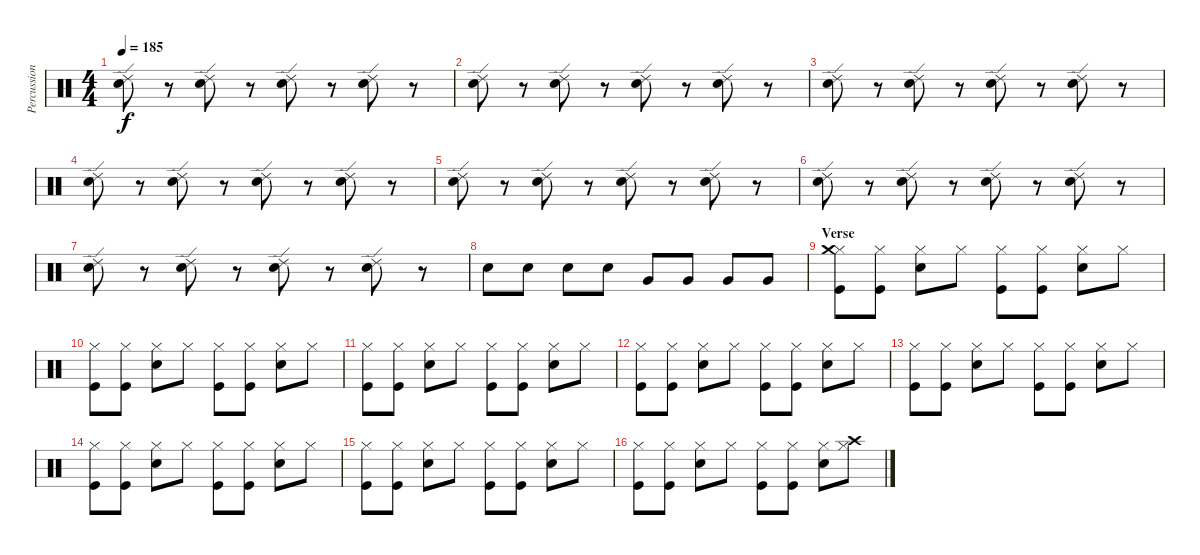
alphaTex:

\track ("Percussion" "Percussion") {instrument percussion}
\staff {score}
\articulation defaults
\ts (4 4)
\tempo 185
\clef neutral
\ks c
("Ride (edge) 2" "Snare (hit) 2").8{dy f} r.8 ("Ride (edge) 2" "Snare (hit) 2").8 r.8 ("Ride (edge) 2" "Snare (hit) 2").8 r.8 ("Ride (edge) 2" "Snare (hit) 2").8 r.8 |
("Ride (edge) 2" "Snare (hit) 2").8 r.8 ("Ride (edge) 2" "Snare (hit) 2").8 r.8 ("Ride (edge) 2" "Snare (hit) 2").8 r.8 ("Ride (edge) 2" "Snare (hit) 2").8 r.8 |
("Ride (edge) 2" "Snare (hit) 2").8 r.8 ("Ride (edge) 2" "Snare (hit) 2").8 r.8 ("Ride (edge) 2" "Snare (hit) 2").8 r.8 ("Ride (edge) 2" "Snare (hit) 2").8 r.8 |
("Ride (edge) 2" "Snare (hit) 2").8 r.8 ("Ride (edge) 2" "Snare (hit) 2").8 r.8 ("Ride (edge) 2" "Snare (hit) 2").8 r.8 ("Ride (edge) 2" "Snare (hit) 2").8 r.8 |
("Ride (edge) 2" "Snare (hit) 2").8 r.8 ("Ride (edge) 2" "Snare (hit) 2").8 r.8 ("Ride (edge) 2" "Snare (hit) 2").8 r.8 ("Ride (edge) 2" "Snare (hit) 2").8 r.8 |
("Ride (edge) 2" "Snare (hit) 2").8 r.8 ("Ride (edge) 2" "Snare (hit) 2").8 r.8 ("Ride (edge) 2" "Snare (hit) 2").8 r.8 ("Ride (edge) 2" "Snare (hit) 2").8 r.8 |
("Ride (edge) 2" "Snare (hit) 2").8 r.8 ("Ride (edge) 2" "Snare (hit) 2").8 r.8 ("Ride (edge) 2" "Snare (hit) 2").8 r.8 ("Ride (edge) 2" "Snare (hit) 2").8 r.8 |
"Snare (hit) 2".8 "Snare (hit) 2".8 "Snare (hit) 2".8 "Snare (hit) 2".8 "Very Low Tom (hit)".8 "Very Low Tom (hit)".8 "Very Low Tom (hit)".8 "Very Low Tom (hit)".8 |
\section ("" "Verse")
("Hi-Hat (closed)" "Crash medium (hit)" "Kick (hit)").8 ("Hi-Hat (closed)" "Kick (hit)").8 ("Hi-Hat (closed)" "Snare (hit) 2").8 "Hi-Hat (closed)".8 ("Hi-Hat (closed)" "Kick (hit)").8 ("Hi-Hat (closed)" "Kick (hit)").8 ("Hi-Hat (closed)" "Snare (hit) 2").8 "Hi-Hat (closed)".8 |
("Hi-Hat (closed)" "Kick (hit)").8 ("Hi-Hat (closed)" "Kick (hit)").8 ("Hi-Hat (closed)" "Snare (hit) 2").8 "Hi-Hat (closed)".8 ("Hi-Hat (closed)" "Kick (hit)").8 ("Hi-Hat (closed)" "Kick (hit)").8 ("Hi-Hat (closed)" "Snare (hit) 2").8 "Hi-Hat (closed)".8 |
("Hi-Hat (closed)" "Kick (hit)").8 ("Hi-Hat (closed)" "Kick (hit)").8 ("Hi-Hat (closed)" "Snare (hit) 2").8 "Hi-Hat (closed)".8 ("Hi-Hat (closed)" "Kick (hit)").8 ("Hi-Hat (closed)" "Kick (hit)").8 ("Hi-Hat (closed)" "Snare (hit) 2").8 "Hi-Hat (closed)".8 |
("Hi-Hat (closed)" "Kick (hit)").8 ("Hi-Hat (closed)" "Kick (hit)").8 ("Hi-Hat (closed)" "Snare (hit) 2").8 "Hi-Hat (closed)".8 ("Hi-Hat (closed)" "Kick (hit)").8 ("Hi-Hat (closed)" "Kick (hit)").8 ("Hi-Hat (closed)" "Snare (hit) 2").8 "Hi-Hat (closed)".8 |
("Hi-Hat (closed)" "Kick (hit)").8 ("Hi-Hat (closed)" "Kick (hit)").8 ("Hi-Hat (closed)" "Snare (hit) 2").8 "Hi-Hat (closed)".8 ("Hi-Hat (closed)" "Kick (hit)").8 ("Hi-Hat (closed)" "Kick (hit)").8 ("Hi-Hat (closed)" "Snare (hit) 2").8 "Hi-Hat (closed)".8 |
("Hi-Hat (closed)" "Kick (hit)").8 ("Hi-Hat (closed)" "Kick (hit)").8 ("Hi-Hat (closed)" "Snare (hit) 2").8 "Hi-Hat (closed)".8 ("Hi-Hat (closed)" "Kick (hit)").8 ("Hi-Hat (closed)" "Kick (hit)").8 ("Hi-Hat (closed)" "Snare (hit) 2").8 "Hi-Hat (closed)".8 |
("Hi-Hat (closed)" "Kick (hit)").8 ("Hi-Hat (closed)" "Kick (hit)").8 ("Hi-Hat (closed)" "Snare (hit) 2").8 "Hi-Hat (closed)".8 ("Hi-Hat (closed)" "Kick (hit)").8 ("Hi-Hat (closed)" "Kick (hit)").8 ("Hi-Hat (closed)" "Snare (hit) 2").8 "Hi-Hat (closed)".8 |
("Hi-Hat (closed)" "Kick (hit)").8 ("Hi-Hat (closed)" "Kick (hit)").8 ("Hi-Hat (closed)" "Snare (hit) 2").8 "Hi-Hat (closed)".8 ("Hi-Hat (closed)" "Kick (hit)").8 ("Hi-Hat (closed)" "Kick (hit)").8 ("Hi-Hat (closed)" "Snare (hit) 2").8 ("Crash high (hit)" "Hi-Hat (closed)").8
